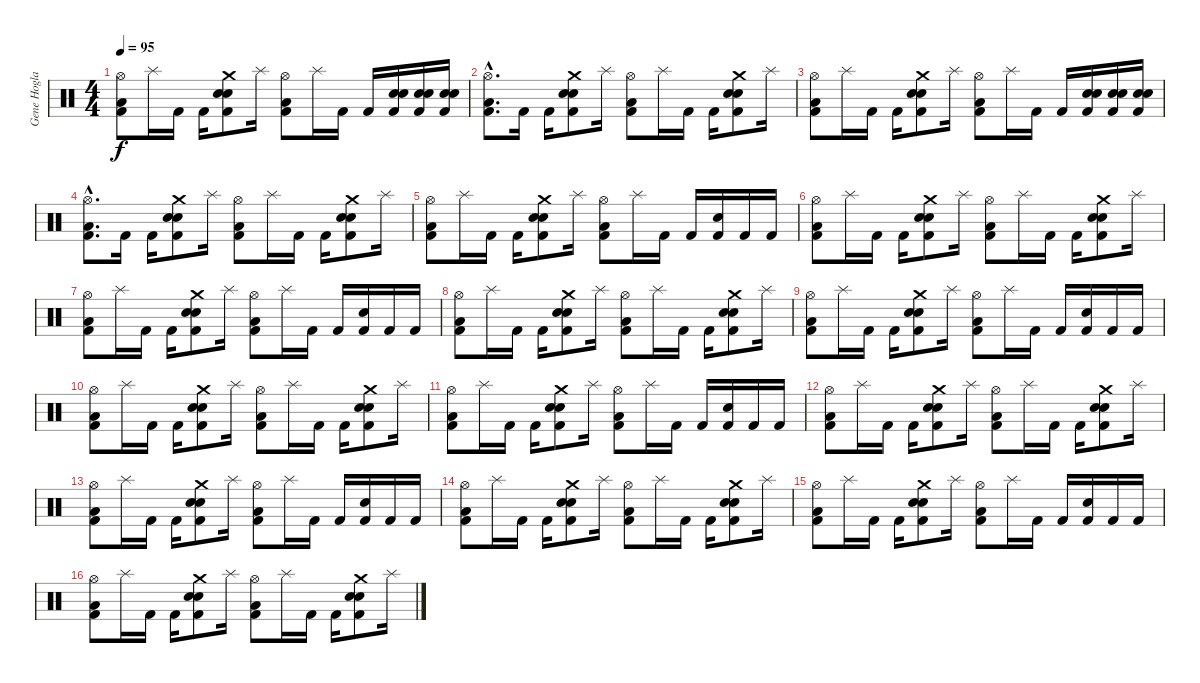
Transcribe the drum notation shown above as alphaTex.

\track ("Gene Hoglan" "Gene Hogla") {instrument percussion}
\staff {score}
\articulation defaults
\ts (4 4)
\tempo 95
\clef neutral
\ks c
("Hi-Hat (open)" "Low Floor Tom (hit)" "Kick (hit) 2").8{dy f} "Splash (hit)".16 "Kick (hit) 2".16 "Kick (hit) 2".16 ("Electric Snare (hit)" "Crash medium (hit)" "Snare (hit) 2" "Kick (hit) 2").8 "Splash (hit)".16 ("Hi-Hat (open)" "Low Floor Tom (hit)" "Kick (hit) 2").8 "Splash (hit)".16 "Kick (hit) 2".16 "Kick (hit) 2".16 ("Electric Snare (hit)" "Snare (hit) 2" "Kick (hit) 2").16 ("Electric Snare (hit)" "Snare (hit) 2" "Kick (hit) 2").16 ("Electric Snare (hit)" "Snare (hit) 2" "Kick (hit) 2").16 |
("Hi-Hat (open)"{hac} "Low Floor Tom (hit)"{hac} "Kick (hit) 2"{hac}).8{d} "Kick (hit) 2".16 "Kick (hit) 2".16 ("Electric Snare (hit)" "Crash medium (hit)" "Snare (hit) 2" "Kick (hit) 2").8 "Splash (hit)".16 ("Hi-Hat (open)" "Low Floor Tom (hit)" "Kick (hit) 2").8 "Splash (hit)".16 "Kick (hit) 2".16 "Kick (hit) 2".16 ("Electric Snare (hit)" "Crash medium (hit)" "Snare (hit) 2" "Kick (hit) 2").8 "Splash (hit)".16 |
("Hi-Hat (open)" "Low Floor Tom (hit)" "Kick (hit) 2").8 "Splash (hit)".16 "Kick (hit) 2".16 "Kick (hit) 2".16 ("Electric Snare (hit)" "Crash medium (hit)" "Snare (hit) 2" "Kick (hit) 2").8 "Splash (hit)".16 ("Hi-Hat (open)" "Low Floor Tom (hit)" "Kick (hit) 2").8 "Splash (hit)".16 "Kick (hit) 2".16 "Kick (hit) 2".16 ("Electric Snare (hit)" "Snare (hit) 2" "Kick (hit) 2").16 ("Electric Snare (hit)" "Snare (hit) 2" "Kick (hit) 2").16 ("Electric Snare (hit)" "Snare (hit) 2" "Kick (hit) 2").16 |
("Hi-Hat (open)"{hac} "Low Floor Tom (hit)"{hac} "Kick (hit) 2"{hac}).8{d} "Kick (hit) 2".16 "Kick (hit) 2".16 ("Electric Snare (hit)" "Crash medium (hit)" "Snare (hit) 2" "Kick (hit) 2").8 "Splash (hit)".16 ("Hi-Hat (open)" "Low Floor Tom (hit)" "Kick (hit) 2").8 "Splash (hit)".16 "Kick (hit) 2".16 "Kick (hit) 2".16 ("Electric Snare (hit)" "Crash medium (hit)" "Snare (hit) 2" "Kick (hit) 2").8 "Splash (hit)".16 |
("Hi-Hat (open)" "Low Floor Tom (hit)" "Kick (hit) 2").8 "Splash (hit)".16 "Kick (hit) 2".16 "Kick (hit) 2".16 ("Electric Snare (hit)" "Crash medium (hit)" "Snare (hit) 2" "Kick (hit) 2").8 "Splash (hit)".16 ("Hi-Hat (open)" "Low Floor Tom (hit)" "Kick (hit) 2").8 "Splash (hit)".16 "Kick (hit) 2".16 "Kick (hit) 2".16 ("Snare (hit) 2" "Kick (hit) 2").16 "Kick (hit) 2".16 "Kick (hit) 2".16 |
("Hi-Hat (open)" "Low Floor Tom (hit)" "Kick (hit) 2").8 "Splash (hit)".16 "Kick (hit) 2".16 "Kick (hit) 2".16 ("Electric Snare (hit)" "Crash medium (hit)" "Snare (hit) 2" "Kick (hit) 2").8 "Splash (hit)".16 ("Hi-Hat (open)" "Low Floor Tom (hit)" "Kick (hit) 2").8 "Splash (hit)".16 "Kick (hit) 2".16 "Kick (hit) 2".16 ("Electric Snare (hit)" "Crash medium (hit)" "Snare (hit) 2" "Kick (hit) 2").8 "Splash (hit)".16 |
("Hi-Hat (open)" "Low Floor Tom (hit)" "Kick (hit) 2").8 "Splash (hit)".16 "Kick (hit) 2".16 "Kick (hit) 2".16 ("Electric Snare (hit)" "Crash medium (hit)" "Snare (hit) 2" "Kick (hit) 2").8 "Splash (hit)".16 ("Hi-Hat (open)" "Low Floor Tom (hit)" "Kick (hit) 2").8 "Splash (hit)".16 "Kick (hit) 2".16 "Kick (hit) 2".16 ("Snare (hit) 2" "Kick (hit) 2").16 "Kick (hit) 2".16 "Kick (hit) 2".16 |
("Hi-Hat (open)" "Low Floor Tom (hit)" "Kick (hit) 2").8 "Splash (hit)".16 "Kick (hit) 2".16 "Kick (hit) 2".16 ("Electric Snare (hit)" "Crash medium (hit)" "Snare (hit) 2" "Kick (hit) 2").8 "Splash (hit)".16 ("Hi-Hat (open)" "Low Floor Tom (hit)" "Kick (hit) 2").8 "Splash (hit)".16 "Kick (hit) 2".16 "Kick (hit) 2".16 ("Electric Snare (hit)" "Crash medium (hit)" "Snare (hit) 2" "Kick (hit) 2").8 "Splash (hit)".16 |
("Hi-Hat (open)" "Low Floor Tom (hit)" "Kick (hit) 2").8 "Splash (hit)".16 "Kick (hit) 2".16 "Kick (hit) 2".16 ("Electric Snare (hit)" "Crash medium (hit)" "Snare (hit) 2" "Kick (hit) 2").8 "Splash (hit)".16 ("Hi-Hat (open)" "Low Floor Tom (hit)" "Kick (hit) 2").8 "Splash (hit)".16 "Kick (hit) 2".16 "Kick (hit) 2".16 ("Snare (hit) 2" "Kick (hit) 2").16 "Kick (hit) 2".16 "Kick (hit) 2".16 |
("Hi-Hat (open)" "Low Floor Tom (hit)" "Kick (hit) 2").8 "Splash (hit)".16 "Kick (hit) 2".16 "Kick (hit) 2".16 ("Electric Snare (hit)" "Crash medium (hit)" "Snare (hit) 2" "Kick (hit) 2").8 "Splash (hit)".16 ("Hi-Hat (open)" "Low Floor Tom (hit)" "Kick (hit) 2").8 "Splash (hit)".16 "Kick (hit) 2".16 "Kick (hit) 2".16 ("Electric Snare (hit)" "Crash medium (hit)" "Snare (hit) 2" "Kick (hit) 2").8 "Splash (hit)".16 |
("Hi-Hat (open)" "Low Floor Tom (hit)" "Kick (hit) 2").8 "Splash (hit)".16 "Kick (hit) 2".16 "Kick (hit) 2".16 ("Electric Snare (hit)" "Crash medium (hit)" "Snare (hit) 2" "Kick (hit) 2").8 "Splash (hit)".16 ("Hi-Hat (open)" "Low Floor Tom (hit)" "Kick (hit) 2").8 "Splash (hit)".16 "Kick (hit) 2".16 "Kick (hit) 2".16 ("Snare (hit) 2" "Kick (hit) 2").16 "Kick (hit) 2".16 "Kick (hit) 2".16 |
("Hi-Hat (open)" "Low Floor Tom (hit)" "Kick (hit) 2").8 "Splash (hit)".16 "Kick (hit) 2".16 "Kick (hit) 2".16 ("Electric Snare (hit)" "Crash medium (hit)" "Snare (hit) 2" "Kick (hit) 2").8 "Splash (hit)".16 ("Hi-Hat (open)" "Low Floor Tom (hit)" "Kick (hit) 2").8 "Splash (hit)".16 "Kick (hit) 2".16 "Kick (hit) 2".16 ("Electric Snare (hit)" "Crash medium (hit)" "Snare (hit) 2" "Kick (hit) 2").8 "Splash (hit)".16 |
("Hi-Hat (open)" "Low Floor Tom (hit)" "Kick (hit) 2").8 "Splash (hit)".16 "Kick (hit) 2".16 "Kick (hit) 2".16 ("Electric Snare (hit)" "Crash medium (hit)" "Snare (hit) 2" "Kick (hit) 2").8 "Splash (hit)".16 ("Hi-Hat (open)" "Low Floor Tom (hit)" "Kick (hit) 2").8 "Splash (hit)".16 "Kick (hit) 2".16 "Kick (hit) 2".16 ("Snare (hit) 2" "Kick (hit) 2").16 "Kick (hit) 2".16 "Kick (hit) 2".16 |
("Hi-Hat (open)" "Low Floor Tom (hit)" "Kick (hit) 2").8 "Splash (hit)".16 "Kick (hit) 2".16 "Kick (hit) 2".16 ("Electric Snare (hit)" "Crash medium (hit)" "Snare (hit) 2" "Kick (hit) 2").8 "Splash (hit)".16 ("Hi-Hat (open)" "Low Floor Tom (hit)" "Kick (hit) 2").8 "Splash (hit)".16 "Kick (hit) 2".16 "Kick (hit) 2".16 ("Electric Snare (hit)" "Crash medium (hit)" "Snare (hit) 2" "Kick (hit) 2").8 "Splash (hit)".16 |
("Hi-Hat (open)" "Low Floor Tom (hit)" "Kick (hit) 2").8 "Splash (hit)".16 "Kick (hit) 2".16 "Kick (hit) 2".16 ("Electric Snare (hit)" "Crash medium (hit)" "Snare (hit) 2" "Kick (hit) 2").8 "Splash (hit)".16 ("Hi-Hat (open)" "Low Floor Tom (hit)" "Kick (hit) 2").8 "Splash (hit)".16 "Kick (hit) 2".16 "Kick (hit) 2".16 ("Snare (hit) 2" "Kick (hit) 2").16 "Kick (hit) 2".16 "Kick (hit) 2".16 |
("Hi-Hat (open)" "Low Floor Tom (hit)" "Kick (hit) 2").8 "Splash (hit)".16 "Kick (hit) 2".16 "Kick (hit) 2".16 ("Electric Snare (hit)" "Crash medium (hit)" "Snare (hit) 2" "Kick (hit) 2").8 "Splash (hit)".16 ("Hi-Hat (open)" "Low Floor Tom (hit)" "Kick (hit) 2").8 "Splash (hit)".16 "Kick (hit) 2".16 "Kick (hit) 2".16 ("Electric Snare (hit)" "Crash medium (hit)" "Snare (hit) 2" "Kick (hit) 2").8 "Splash (hit)".16
